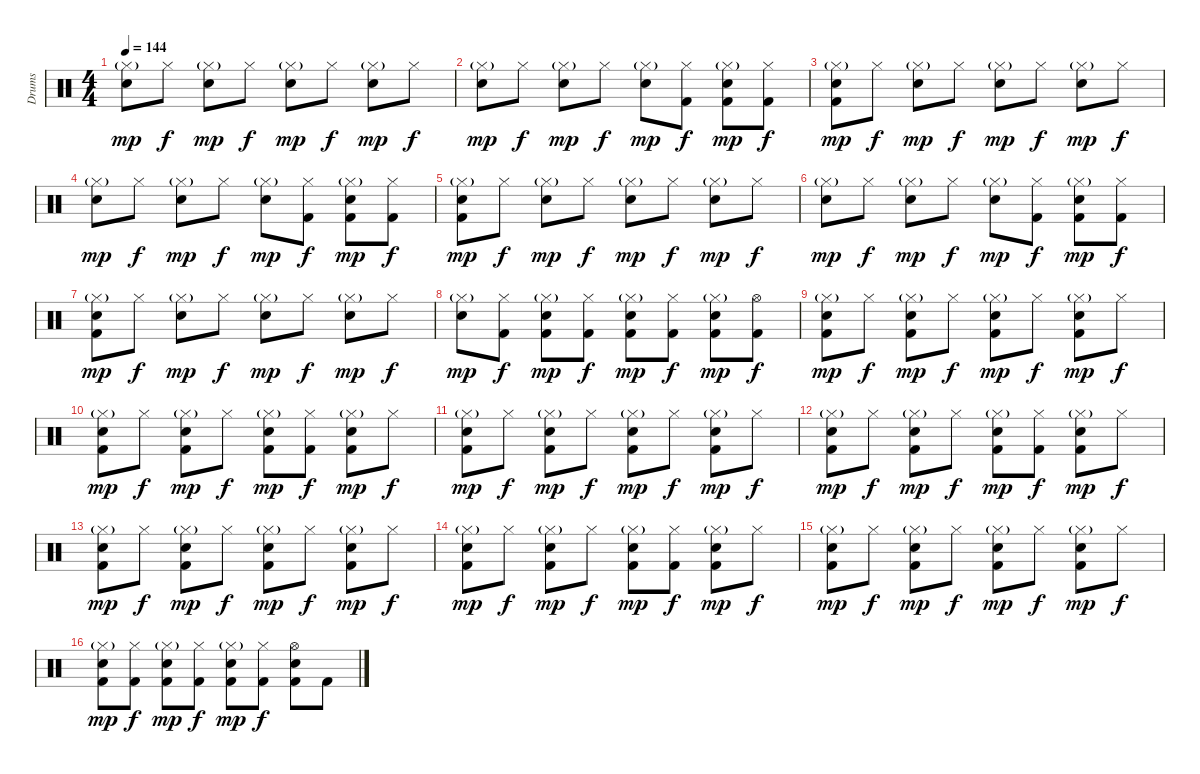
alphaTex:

\track ("Drums" "Drums") {instrument percussion}
\staff {score}
\articulation defaults
\ts (4 4)
\tempo 144
\clef neutral
\ks c
("Hi-Hat (closed)"{g} "Snare (hit) 2").8{dy mp} "Hi-Hat (closed)".8{dy f} ("Hi-Hat (closed)"{g} "Snare (hit) 2").8{dy mp} "Hi-Hat (closed)".8{dy f} ("Hi-Hat (closed)"{g} "Snare (hit) 2").8{dy mp} "Hi-Hat (closed)".8{dy f} ("Hi-Hat (closed)"{g} "Snare (hit) 2").8{dy mp} "Hi-Hat (closed)".8{dy f} |
("Hi-Hat (closed)"{g} "Snare (hit) 2").8{dy mp} "Hi-Hat (closed)".8{dy f} ("Hi-Hat (closed)"{g} "Snare (hit) 2").8{dy mp} "Hi-Hat (closed)".8{dy f} ("Hi-Hat (closed)"{g} "Snare (hit) 2").8{dy mp} ("Hi-Hat (closed)" "Kick (hit) 2").8{dy f} ("Hi-Hat (closed)"{g} "Snare (hit) 2" "Kick (hit) 2").8{dy mp} ("Hi-Hat (closed)" "Kick (hit) 2").8{dy f} |
("Hi-Hat (closed)"{g} "Snare (hit) 2" "Kick (hit) 2").8{dy mp} "Hi-Hat (closed)".8{dy f} ("Hi-Hat (closed)"{g} "Snare (hit) 2").8{dy mp} "Hi-Hat (closed)".8{dy f} ("Hi-Hat (closed)"{g} "Snare (hit) 2").8{dy mp} "Hi-Hat (closed)".8{dy f} ("Hi-Hat (closed)"{g} "Snare (hit) 2").8{dy mp} "Hi-Hat (closed)".8{dy f} |
("Hi-Hat (closed)"{g} "Snare (hit) 2").8{dy mp} "Hi-Hat (closed)".8{dy f} ("Hi-Hat (closed)"{g} "Snare (hit) 2").8{dy mp} "Hi-Hat (closed)".8{dy f} ("Hi-Hat (closed)"{g} "Snare (hit) 2").8{dy mp} ("Hi-Hat (closed)" "Kick (hit) 2").8{dy f} ("Hi-Hat (closed)"{g} "Snare (hit) 2" "Kick (hit) 2").8{dy mp} ("Hi-Hat (closed)" "Kick (hit) 2").8{dy f} |
("Hi-Hat (closed)"{g} "Snare (hit) 2" "Kick (hit) 2").8{dy mp} "Hi-Hat (closed)".8{dy f} ("Hi-Hat (closed)"{g} "Snare (hit) 2").8{dy mp} "Hi-Hat (closed)".8{dy f} ("Hi-Hat (closed)"{g} "Snare (hit) 2").8{dy mp} "Hi-Hat (closed)".8{dy f} ("Hi-Hat (closed)"{g} "Snare (hit) 2").8{dy mp} "Hi-Hat (closed)".8{dy f} |
("Hi-Hat (closed)"{g} "Snare (hit) 2").8{dy mp} "Hi-Hat (closed)".8{dy f} ("Hi-Hat (closed)"{g} "Snare (hit) 2").8{dy mp} "Hi-Hat (closed)".8{dy f} ("Hi-Hat (closed)"{g} "Snare (hit) 2").8{dy mp} ("Hi-Hat (closed)" "Kick (hit) 2").8{dy f} ("Hi-Hat (closed)"{g} "Snare (hit) 2" "Kick (hit) 2").8{dy mp} ("Hi-Hat (closed)" "Kick (hit) 2").8{dy f} |
("Hi-Hat (closed)"{g} "Snare (hit) 2" "Kick (hit) 2").8{dy mp} "Hi-Hat (closed)".8{dy f} ("Hi-Hat (closed)"{g} "Snare (hit) 2").8{dy mp} "Hi-Hat (closed)".8{dy f} ("Hi-Hat (closed)"{g} "Snare (hit) 2").8{dy mp} "Hi-Hat (closed)".8{dy f} ("Hi-Hat (closed)"{g} "Snare (hit) 2").8{dy mp} "Hi-Hat (closed)".8{dy f} |
("Hi-Hat (closed)"{g} "Snare (hit) 2").8{dy mp} ("Hi-Hat (closed)" "Kick (hit) 2").8{dy f} ("Hi-Hat (closed)"{g} "Snare (hit) 2" "Kick (hit) 2").8{dy mp} ("Hi-Hat (closed)" "Kick (hit) 2").8{dy f} ("Hi-Hat (closed)"{g} "Snare (hit) 2" "Kick (hit) 2").8{dy mp} ("Hi-Hat (closed)" "Kick (hit) 2").8{dy f} ("Hi-Hat (closed)"{g} "Snare (hit) 2" "Kick (hit) 2").8{dy mp} ("Hi-Hat (open)" "Kick (hit) 2").8{dy f} |
("Hi-Hat (closed)"{g} "Snare (hit) 2" "Kick (hit) 2").8{dy mp} "Hi-Hat (closed)".8{dy f} ("Hi-Hat (closed)"{g} "Snare (hit) 2" "Kick (hit) 2").8{dy mp} "Hi-Hat (closed)".8{dy f} ("Hi-Hat (closed)"{g} "Snare (hit) 2" "Kick (hit) 2").8{dy mp} "Hi-Hat (closed)".8{dy f} ("Hi-Hat (closed)"{g} "Snare (hit) 2" "Kick (hit) 2").8{dy mp} "Hi-Hat (closed)".8{dy f} |
("Hi-Hat (closed)"{g} "Snare (hit) 2" "Kick (hit) 2").8{dy mp} "Hi-Hat (closed)".8{dy f} ("Hi-Hat (closed)"{g} "Snare (hit) 2" "Kick (hit) 2").8{dy mp} "Hi-Hat (closed)".8{dy f} ("Hi-Hat (closed)"{g} "Snare (hit) 2" "Kick (hit) 2").8{dy mp} ("Hi-Hat (closed)" "Kick (hit) 2").8{dy f} ("Hi-Hat (closed)"{g} "Snare (hit) 2" "Kick (hit) 2").8{dy mp} "Hi-Hat (closed)".8{dy f} |
("Hi-Hat (closed)"{g} "Snare (hit) 2" "Kick (hit) 2").8{dy mp} "Hi-Hat (closed)".8{dy f} ("Hi-Hat (closed)"{g} "Snare (hit) 2" "Kick (hit) 2").8{dy mp} "Hi-Hat (closed)".8{dy f} ("Hi-Hat (closed)"{g} "Snare (hit) 2" "Kick (hit) 2").8{dy mp} "Hi-Hat (closed)".8{dy f} ("Hi-Hat (closed)"{g} "Snare (hit) 2" "Kick (hit) 2").8{dy mp} "Hi-Hat (closed)".8{dy f} |
("Hi-Hat (closed)"{g} "Snare (hit) 2" "Kick (hit) 2").8{dy mp} "Hi-Hat (closed)".8{dy f} ("Hi-Hat (closed)"{g} "Snare (hit) 2" "Kick (hit) 2").8{dy mp} "Hi-Hat (closed)".8{dy f} ("Hi-Hat (closed)"{g} "Snare (hit) 2" "Kick (hit) 2").8{dy mp} ("Hi-Hat (closed)" "Kick (hit) 2").8{dy f} ("Hi-Hat (closed)"{g} "Snare (hit) 2" "Kick (hit) 2").8{dy mp} "Hi-Hat (closed)".8{dy f} |
("Hi-Hat (closed)"{g} "Snare (hit) 2" "Kick (hit) 2").8{dy mp} "Hi-Hat (closed)".8{dy f} ("Hi-Hat (closed)"{g} "Snare (hit) 2" "Kick (hit) 2").8{dy mp} "Hi-Hat (closed)".8{dy f} ("Hi-Hat (closed)"{g} "Snare (hit) 2" "Kick (hit) 2").8{dy mp} "Hi-Hat (closed)".8{dy f} ("Hi-Hat (closed)"{g} "Snare (hit) 2" "Kick (hit) 2").8{dy mp} "Hi-Hat (closed)".8{dy f} |
("Hi-Hat (closed)"{g} "Snare (hit) 2" "Kick (hit) 2").8{dy mp} "Hi-Hat (closed)".8{dy f} ("Hi-Hat (closed)"{g} "Snare (hit) 2" "Kick (hit) 2").8{dy mp} "Hi-Hat (closed)".8{dy f} ("Hi-Hat (closed)"{g} "Snare (hit) 2" "Kick (hit) 2").8{dy mp} ("Hi-Hat (closed)" "Kick (hit) 2").8{dy f} ("Hi-Hat (closed)"{g} "Snare (hit) 2" "Kick (hit) 2").8{dy mp} "Hi-Hat (closed)".8{dy f} |
("Hi-Hat (closed)"{g} "Snare (hit) 2" "Kick (hit) 2").8{dy mp} "Hi-Hat (closed)".8{dy f} ("Hi-Hat (closed)"{g} "Snare (hit) 2" "Kick (hit) 2").8{dy mp} "Hi-Hat (closed)".8{dy f} ("Hi-Hat (closed)"{g} "Snare (hit) 2" "Kick (hit) 2").8{dy mp} "Hi-Hat (closed)".8{dy f} ("Hi-Hat (closed)"{g} "Snare (hit) 2" "Kick (hit) 2").8{dy mp} "Hi-Hat (closed)".8{dy f} |
("Hi-Hat (closed)"{g} "Snare (hit) 2" "Kick (hit) 2").8{dy mp} ("Hi-Hat (closed)" "Kick (hit) 2").8{dy f} ("Hi-Hat (closed)"{g} "Snare (hit) 2" "Kick (hit) 2").8{dy mp} ("Hi-Hat (closed)" "Kick (hit) 2").8{dy f} ("Hi-Hat (closed)"{g} "Snare (hit) 2" "Kick (hit) 2").8{dy mp} ("Hi-Hat (closed)" "Kick (hit) 2").8{dy f} ("Hi-Hat (open)" "Snare (hit) 2" "Kick (hit) 2").8 "Kick (hit) 2".8
